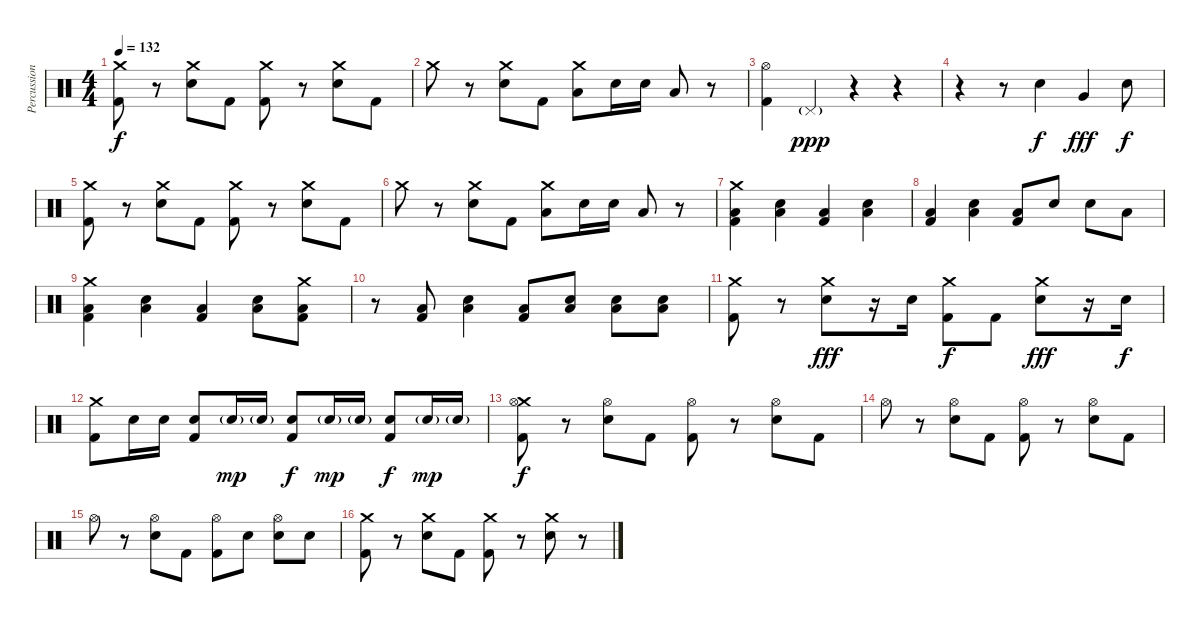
\track ("Percussion" "Percussion") {instrument percussion}
\staff {score}
\articulation defaults
\ts (4 4)
\tempo 132
\clef neutral
\ks c
("Crash medium (hit)" "Kick (hit) 2").8{dy f} r.8 ("Crash medium (hit)" "Snare (hit) 2").8 "Kick (hit) 2".8 ("Crash medium (hit)" "Kick (hit) 2").8 r.8 ("Crash medium (hit)" "Snare (hit) 2").8 "Kick (hit) 2".8 |
"Crash medium (hit)".8 r.8 ("Crash medium (hit)" "Snare (hit) 2").8 "Kick (hit) 2".8 ("Crash medium (hit)" "Low Floor Tom (hit)").8 "Snare (hit) 2".16 "Snare (hit) 2".16 "Low Floor Tom (hit)".8 r.8 |
("Hi-Hat (open)" "Kick (hit) 2").4 "Pedal Hi-Hat (hit)"{g}.4{dy ppp} r.4 r.4 |
r.4 r.8 "Snare (hit) 2".4{dy f} "Very Low Tom (hit)".4{dy fff} "Snare (hit) 2".8{dy f} |
("Crash medium (hit)" "Kick (hit) 2").8 r.8 ("Crash medium (hit)" "Snare (hit) 2").8 "Kick (hit) 2".8 ("Crash medium (hit)" "Kick (hit) 2").8 r.8 ("Crash medium (hit)" "Snare (hit) 2").8 "Kick (hit) 2".8 |
"Crash medium (hit)".8 r.8 ("Crash medium (hit)" "Snare (hit) 2").8 "Kick (hit) 2".8 ("Crash medium (hit)" "Low Floor Tom (hit)").8 "Snare (hit) 2".16 "Snare (hit) 2".16 "Low Floor Tom (hit)".8 r.8 |
("Crash medium (hit)" "Low Floor Tom (hit)" "Kick (hit) 2").4 ("Snare (hit) 2" "Low Floor Tom (hit)").4 ("Low Floor Tom (hit)" "Kick (hit) 2").4 ("Snare (hit) 2" "Low Floor Tom (hit)").4 |
("Low Floor Tom (hit)" "Kick (hit) 2").4 ("Snare (hit) 2" "Low Floor Tom (hit)").4 ("Low Floor Tom (hit)" "Kick (hit) 2").8 "Snare (hit) 2".8 "Snare (hit) 2".8 "Low Floor Tom (hit)".8 |
("Crash medium (hit)" "Low Floor Tom (hit)" "Kick (hit) 2").4 ("Snare (hit) 2" "Low Floor Tom (hit)").4 ("Low Floor Tom (hit)" "Kick (hit) 2").4 ("Snare (hit) 2" "Low Floor Tom (hit)").8 ("Crash medium (hit)" "Low Floor Tom (hit)" "Kick (hit) 2").8 |
r.8 ("Low Floor Tom (hit)" "Kick (hit) 2").8 ("Snare (hit) 2" "Low Floor Tom (hit)").4 ("Low Floor Tom (hit)" "Kick (hit) 2").8 ("Snare (hit) 2" "Low Floor Tom (hit)").8 ("Snare (hit) 2" "Low Floor Tom (hit)").8 ("Snare (hit) 2" "Low Floor Tom (hit)").8 |
("Crash medium (hit)" "Kick (hit) 2").8 r.8 ("Crash medium (hit)" "Snare (hit) 2").8{dy fff} r.16 "Snare (hit) 2".16 ("Crash medium (hit)" "Kick (hit) 2").8{dy f} "Kick (hit) 2".8 ("Crash medium (hit)" "Snare (hit) 2").8{dy fff} r.16 "Snare (hit) 2".16{dy f} |
("Crash medium (hit)" "Kick (hit) 2").8 "Snare (hit) 2".16 "Snare (hit) 2".16 ("Snare (hit) 2" "Kick (hit) 2").8 "Snare (hit) 2"{g}.16{dy mp} "Snare (hit) 2"{g}.16 ("Snare (hit) 2" "Kick (hit) 2").8{dy f} "Snare (hit) 2"{g}.16{dy mp} "Snare (hit) 2"{g}.16 ("Snare (hit) 2" "Kick (hit) 2").8{dy f} "Snare (hit) 2"{g}.16{dy mp} "Snare (hit) 2"{g}.16 |
("Crash medium (hit)" "Hi-Hat (open)" "Kick (hit) 2").8{dy f} r.8 ("Hi-Hat (open)" "Snare (hit) 2").8 "Kick (hit) 2".8 ("Hi-Hat (open)" "Kick (hit) 2").8 r.8 ("Hi-Hat (open)" "Snare (hit) 2").8 "Kick (hit) 2".8 |
"Hi-Hat (open)".8 r.8 ("Hi-Hat (open)" "Snare (hit) 2").8 "Kick (hit) 2".8 ("Hi-Hat (open)" "Kick (hit) 2").8 r.8 ("Hi-Hat (open)" "Snare (hit) 2").8 "Kick (hit) 2".8 |
"Hi-Hat (open)".8 r.8 ("Hi-Hat (open)" "Snare (hit) 2").8 "Kick (hit) 2".8 ("Hi-Hat (open)" "Kick (hit) 2").8 "Snare (hit) 2".8 ("Hi-Hat (open)" "Snare (hit) 2").8 "Snare (hit) 2".8 |
("Crash medium (hit)" "Kick (hit) 2").8 r.8 ("Crash medium (hit)" "Snare (hit) 2").8 "Kick (hit) 2".8 ("Crash medium (hit)" "Kick (hit) 2").8 r.8 ("Crash medium (hit)" "Snare (hit) 2").8 r.8
